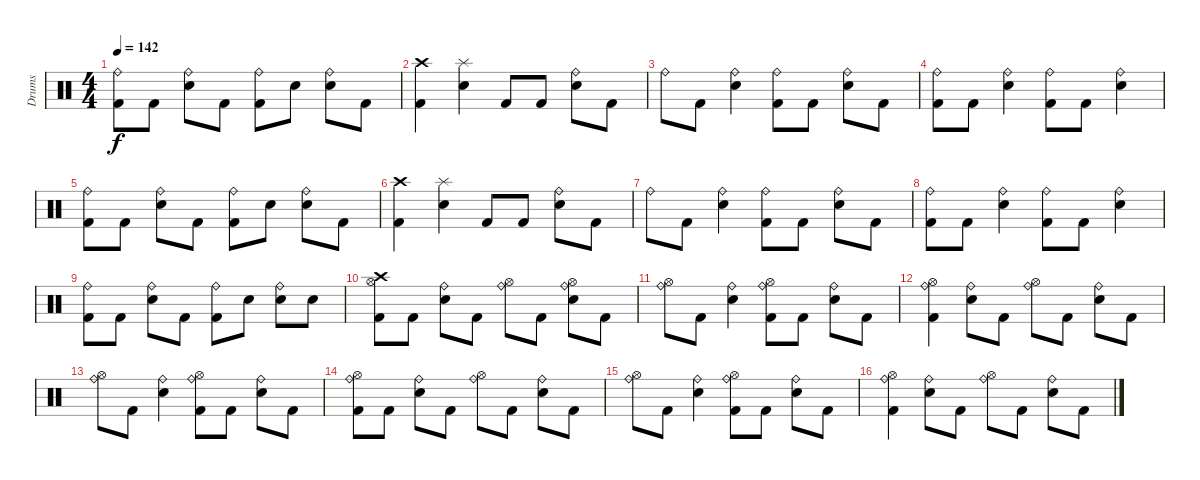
\track ("Drums" "Drums") {instrument percussion}
\staff {score}
\articulation defaults
\ts (4 4)
\tempo 142
\clef neutral
\ks c
("Kick (hit) 2" "Ride (bell)").8{dy f} "Kick (hit) 2".8 ("Snare (hit) 2" "Ride (bell)").8 "Kick (hit) 2".8 ("Kick (hit) 2" "Ride (bell)").8 "Snare (hit) 2".8 ("Snare (hit) 2" "Ride (bell)").8 "Kick (hit) 2".8 |
("Kick (hit) 2" "Crash high (hit)").4 ("Snare (hit) 2" "Splash (hit)").4 "Kick (hit) 2".8 "Kick (hit) 2".8 ("Snare (hit) 2" "Ride (bell)").8 "Kick (hit) 2".8 |
"Ride (bell)".8 "Kick (hit) 2".8 ("Snare (hit) 2" "Ride (bell)").4 ("Kick (hit) 2" "Ride (bell)").8 "Kick (hit) 2".8 ("Snare (hit) 2" "Ride (bell)").8 "Kick (hit) 2".8 |
("Kick (hit) 2" "Ride (bell)").8 "Kick (hit) 2".8 ("Snare (hit) 2" "Ride (bell)").4 ("Kick (hit) 2" "Ride (bell)").8 "Kick (hit) 2".8 ("Snare (hit) 2" "Ride (bell)").4 |
("Kick (hit) 2" "Ride (bell)").8 "Kick (hit) 2".8 ("Snare (hit) 2" "Ride (bell)").8 "Kick (hit) 2".8 ("Kick (hit) 2" "Ride (bell)").8 "Snare (hit) 2".8 ("Snare (hit) 2" "Ride (bell)").8 "Kick (hit) 2".8 |
("Kick (hit) 2" "Crash high (hit)").4 ("Snare (hit) 2" "Splash (hit)").4 "Kick (hit) 2".8 "Kick (hit) 2".8 ("Snare (hit) 2" "Ride (bell)").8 "Kick (hit) 2".8 |
"Ride (bell)".8 "Kick (hit) 2".8 ("Snare (hit) 2" "Ride (bell)").4 ("Kick (hit) 2" "Ride (bell)").8 "Kick (hit) 2".8 ("Snare (hit) 2" "Ride (bell)").8 "Kick (hit) 2".8 |
("Kick (hit) 2" "Ride (bell)").8 "Kick (hit) 2".8 ("Snare (hit) 2" "Ride (bell)").4 ("Kick (hit) 2" "Ride (bell)").8 "Kick (hit) 2".8 ("Snare (hit) 2" "Ride (bell)").4 |
("Kick (hit) 2" "Ride (bell)").8 "Kick (hit) 2".8 ("Snare (hit) 2" "Ride (bell)").8 "Kick (hit) 2".8 ("Kick (hit) 2" "Ride (bell)").8 "Snare (hit) 2".8 ("Snare (hit) 2" "Ride (bell)").8 "Snare (hit) 2".8 |
("Kick (hit) 2" "Hi-Hat (open)" "Crash high (hit)").8 "Kick (hit) 2".8 ("Snare (hit) 2" "Ride (bell)").8 "Kick (hit) 2".8 ("Hi-Hat (open)" "Ride (bell)").8 "Kick (hit) 2".8 ("Snare (hit) 2" "Hi-Hat (open)" "Ride (bell)").8 "Kick (hit) 2".8 |
("Hi-Hat (open)" "Ride (bell)").8 "Kick (hit) 2".8 ("Snare (hit) 2" "Ride (bell)").4 ("Kick (hit) 2" "Hi-Hat (open)" "Ride (bell)").8 "Kick (hit) 2".8 ("Snare (hit) 2" "Ride (bell)").8 "Kick (hit) 2".8 |
("Kick (hit) 2" "Hi-Hat (open)" "Ride (bell)").4 ("Snare (hit) 2" "Ride (bell)").8 "Kick (hit) 2".8 ("Hi-Hat (open)" "Ride (bell)").8 "Kick (hit) 2".8 ("Snare (hit) 2" "Ride (bell)").8 "Kick (hit) 2".8 |
("Hi-Hat (open)" "Ride (bell)").8 "Kick (hit) 2".8 ("Snare (hit) 2" "Ride (bell)").4 ("Kick (hit) 2" "Hi-Hat (open)" "Ride (bell)").8 "Kick (hit) 2".8 ("Snare (hit) 2" "Ride (bell)").8 "Kick (hit) 2".8 |
("Kick (hit) 2" "Hi-Hat (open)" "Ride (bell)").8 "Kick (hit) 2".8 ("Snare (hit) 2" "Ride (bell)").8 "Kick (hit) 2".8 ("Hi-Hat (open)" "Ride (bell)").8 "Kick (hit) 2".8 ("Snare (hit) 2" "Ride (bell)").8 "Kick (hit) 2".8 |
("Hi-Hat (open)" "Ride (bell)").8 "Kick (hit) 2".8 ("Snare (hit) 2" "Ride (bell)").4 ("Kick (hit) 2" "Hi-Hat (open)" "Ride (bell)").8 "Kick (hit) 2".8 ("Snare (hit) 2" "Ride (bell)").8 "Kick (hit) 2".8 |
("Kick (hit) 2" "Hi-Hat (open)" "Ride (bell)").4 ("Snare (hit) 2" "Ride (bell)").8 "Kick (hit) 2".8 ("Hi-Hat (open)" "Ride (bell)").8 "Kick (hit) 2".8 ("Snare (hit) 2" "Ride (bell)").8 "Kick (hit) 2".8
